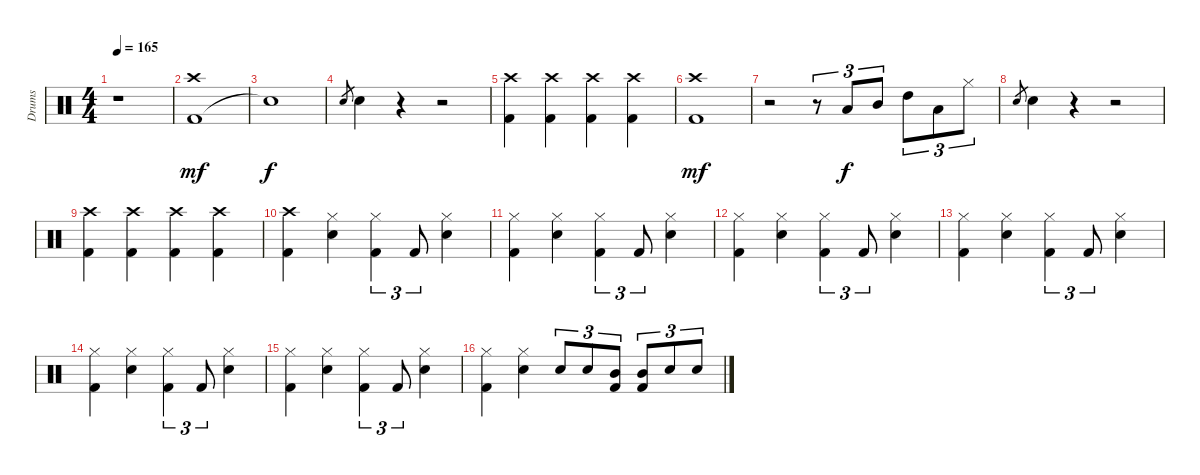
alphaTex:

\track ("Drums" "Drums") {instrument percussion}
\staff {score}
\articulation defaults
\ts (4 4)
\tempo 165
\clef neutral
\ks c
r.1{dy mf} |
("Kick (hit) 2" "Crash high (hit)").1 |
"Snare (hit)"{t}.1{dy f} |
"Electric Snare (hit)".8{gr} "Electric Snare (hit)".4 r.4 r.2 |
("Kick (hit) 2" "Crash high (hit)").4 ("Kick (hit) 2" "Crash high (hit)").4 ("Kick (hit) 2" "Crash high (hit)").4 ("Kick (hit) 2" "Crash high (hit)").4 |
("Kick (hit) 2" "Crash high (hit)").1{dy mf} |
r.2 r.8{tu (3 2)} "Low Tom (hit)".8{tu (3 2) dy f} "Mid Tom (hit)".8{tu (3 2)} "High Tom (hit)".8{tu (3 2)} "Low Tom (hit)".8{tu (3 2)} "Hi-Hat (closed)".8{tu (3 2)} |
"Electric Snare (hit)".8{gr} "Electric Snare (hit)".4 r.4 r.2 |
("Kick (hit) 2" "Crash high (hit)").4 ("Kick (hit) 2" "Crash high (hit)").4 ("Kick (hit) 2" "Crash high (hit)").4 ("Kick (hit) 2" "Crash high (hit)").4 |
("Crash high (hit)" "Kick (hit) 2").4 ("Hi-Hat (closed)" "Electric Snare (hit)").4 ("Hi-Hat (closed)" "Kick (hit) 2").4{tu (3 2)} "Kick (hit) 2".8{tu (3 2)} ("Hi-Hat (closed)" "Electric Snare (hit)").4 |
("Hi-Hat (closed)" "Kick (hit) 2").4 ("Hi-Hat (closed)" "Electric Snare (hit)").4 ("Hi-Hat (closed)" "Kick (hit) 2").4{tu (3 2)} "Kick (hit) 2".8{tu (3 2)} ("Hi-Hat (closed)" "Electric Snare (hit)").4 |
("Hi-Hat (closed)" "Kick (hit) 2").4 ("Hi-Hat (closed)" "Electric Snare (hit)").4 ("Hi-Hat (closed)" "Kick (hit) 2").4{tu (3 2)} "Kick (hit) 2".8{tu (3 2)} ("Hi-Hat (closed)" "Electric Snare (hit)").4 |
("Hi-Hat (closed)" "Kick (hit) 2").4 ("Hi-Hat (closed)" "Electric Snare (hit)").4 ("Hi-Hat (closed)" "Kick (hit) 2").4{tu (3 2)} "Kick (hit) 2".8{tu (3 2)} ("Hi-Hat (closed)" "Electric Snare (hit)").4 |
("Hi-Hat (closed)" "Kick (hit) 2").4 ("Hi-Hat (closed)" "Electric Snare (hit)").4 ("Hi-Hat (closed)" "Kick (hit) 2").4{tu (3 2)} "Kick (hit) 2".8{tu (3 2)} ("Hi-Hat (closed)" "Electric Snare (hit)").4 |
("Hi-Hat (closed)" "Kick (hit) 2").4 ("Hi-Hat (closed)" "Electric Snare (hit)").4 ("Hi-Hat (closed)" "Kick (hit) 2").4{tu (3 2)} "Kick (hit) 2".8{tu (3 2)} ("Hi-Hat (closed)" "Electric Snare (hit)").4 |
("Hi-Hat (closed)" "Kick (hit) 2").4 ("Hi-Hat (closed)" "Electric Snare (hit)").4 "Electric Snare (hit)".8{tu (3 2)} "Electric Snare (hit)".8{tu (3 2)} ("Kick (hit) 2" "Mid Tom (hit)").8{tu (3 2)} ("Kick (hit) 2" "Mid Tom (hit)").8{tu (3 2)} "Electric Snare (hit)".8{tu (3 2)} "Electric Snare (hit)".8{tu (3 2)}
